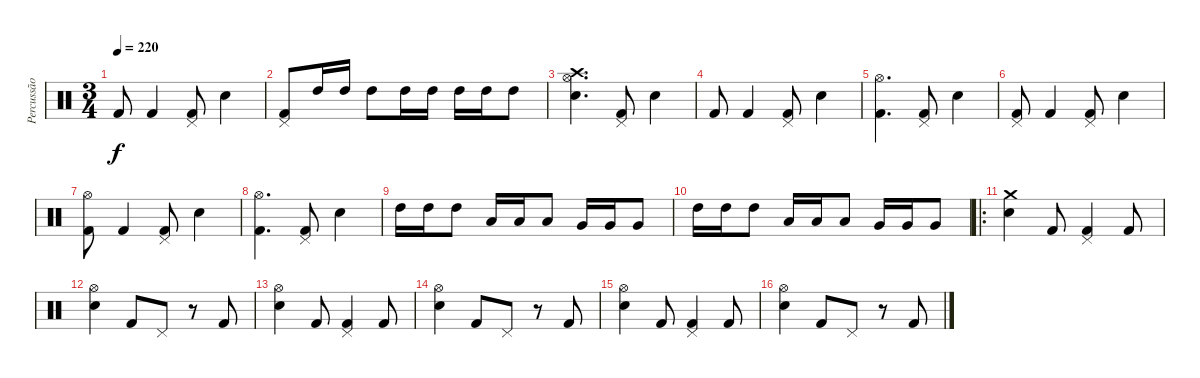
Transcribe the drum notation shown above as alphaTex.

\track ("Percussão" "Percussão") {instrument percussion}
\staff {score}
\articulation defaults
\ts (3 4)
\tempo 220
\clef neutral
\ks c "Kick (hit) 2".8{dy f} "Kick (hit) 2".4
("Pedal Hi-Hat (hit)" "Kick (hit) 2").8 "Snare (hit) 2".4 |
("Pedal Hi-Hat (hit)" "Kick (hit) 2").8 "High Tom (hit)".16 "High Tom (hit)".16 "High Tom (hit)".8 "High Tom (hit)".16 "High Tom (hit)".16 "High Tom (hit)".16 "High Tom (hit)".16 "High Tom (hit)".8 |
("Hi-Hat (open)" "Snare (hit) 2" "Crash high (hit)").4{d} ("Pedal Hi-Hat (hit)" "Kick (hit) 2").8 "Snare (hit) 2".4 |
"Kick (hit) 2".8 "Kick (hit) 2".4 ("Pedal Hi-Hat (hit)" "Kick (hit) 2").8 "Snare (hit) 2".4 |
("Hi-Hat (open)" "Kick (hit) 2").4{d} ("Pedal Hi-Hat (hit)" "Kick (hit) 2").8 "Snare (hit) 2".4 |
("Pedal Hi-Hat (hit)" "Kick (hit) 2").8 "Kick (hit) 2".4 ("Pedal Hi-Hat (hit)" "Kick (hit) 2").8 "Snare (hit) 2".4 |
("Hi-Hat (open)" "Kick (hit) 2").8 "Kick (hit) 2".4 ("Pedal Hi-Hat (hit)" "Kick (hit) 2").8 "Snare (hit) 2".4 |
("Hi-Hat (open)" "Kick (hit) 2").4{d} ("Pedal Hi-Hat (hit)" "Kick (hit) 2").8 "Snare (hit) 2".4 |
"High Tom (hit)".16 "High Tom (hit)".16 "High Tom (hit)".8 "Low Tom (hit)".16 "Low Tom (hit)".16 "Low Tom (hit)".8 "Very Low Tom (hit)".16 "Very Low Tom (hit)".16 "Very Low Tom (hit)".8 |
"High Tom (hit)".16 "High Tom (hit)".16 "High Tom (hit)".8 "Low Tom (hit)".16 "Low Tom (hit)".16 "Low Tom (hit)".8 "Very Low Tom (hit)".16 "Very Low Tom (hit)".16 "Very Low Tom (hit)".8 |
\ro
("Crash medium (hit)" "Snare (hit) 2").4 "Kick (hit) 2".8 ("Pedal Hi-Hat (hit)" "Kick (hit) 2").4 "Kick (hit) 2".8 |
("Hi-Hat (open)" "Snare (hit) 2").4 "Kick (hit) 2".8 "Pedal Hi-Hat (hit)".8 r.8 "Kick (hit) 2".8 |
("Hi-Hat (open)" "Snare (hit) 2").4 "Kick (hit) 2".8 ("Pedal Hi-Hat (hit)" "Kick (hit) 2").4 "Kick (hit) 2".8 |
("Hi-Hat (open)" "Snare (hit) 2").4 "Kick (hit) 2".8 "Pedal Hi-Hat (hit)".8 r.8 "Kick (hit) 2".8 |
("Hi-Hat (open)" "Snare (hit) 2").4 "Kick (hit) 2".8 ("Pedal Hi-Hat (hit)" "Kick (hit) 2").4 "Kick (hit) 2".8 |
("Hi-Hat (open)" "Snare (hit) 2").4 "Kick (hit) 2".8 "Pedal Hi-Hat (hit)".8 r.8 "Kick (hit) 2".8
